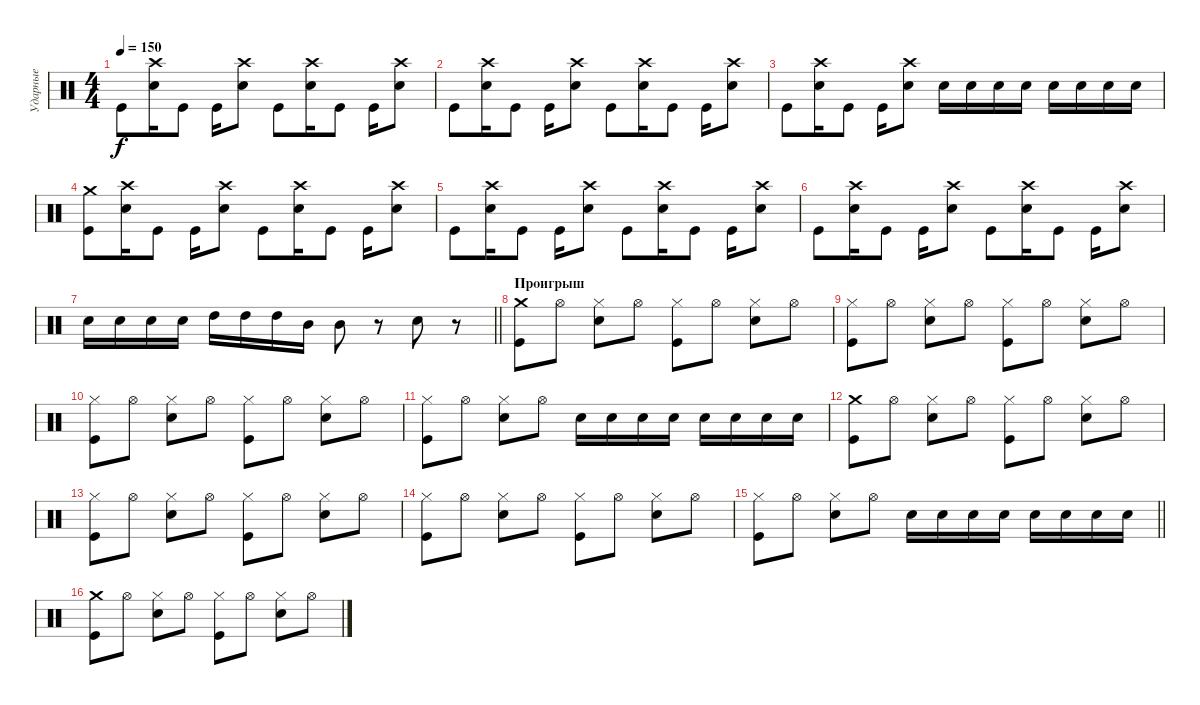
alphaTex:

\track ("Ударные" "Ударные") {instrument percussion}
\staff {score}
\articulation defaults
\ts (4 4)
\tempo 150
\clef neutral
\ks c "Kick (hit)".8{dy f}
("Crash high (hit)" "Electric Snare (hit)").16 "Kick (hit)".8 "Kick (hit)".16 ("Crash high (hit)" "Electric Snare (hit)").8 "Kick (hit)".8 ("Crash high (hit)" "Electric Snare (hit)").16 "Kick (hit)".8 "Kick (hit)".16 ("Crash high (hit)" "Electric Snare (hit)").8 |
"Kick (hit)".8 ("Crash high (hit)" "Electric Snare (hit)").16 "Kick (hit)".8 "Kick (hit)".16 ("Crash high (hit)" "Electric Snare (hit)").8 "Kick (hit)".8 ("Crash high (hit)" "Electric Snare (hit)").16 "Kick (hit)".8 "Kick (hit)".16 ("Crash high (hit)" "Electric Snare (hit)").8 |
"Kick (hit)".8 ("Crash high (hit)" "Electric Snare (hit)").16 "Kick (hit)".8 "Kick (hit)".16 ("Crash high (hit)" "Electric Snare (hit)").8 "Electric Snare (hit)".16 "Electric Snare (hit)".16 "Electric Snare (hit)".16 "Electric Snare (hit)".16 "Electric Snare (hit)".16 "Electric Snare (hit)".16 "Electric Snare (hit)".16 "Electric Snare (hit)".16 |
("Crash medium (hit)" "Kick (hit)").8 ("Crash high (hit)" "Electric Snare (hit)").16 "Kick (hit)".8 "Kick (hit)".16 ("Crash high (hit)" "Electric Snare (hit)").8 "Kick (hit)".8 ("Crash high (hit)" "Electric Snare (hit)").16 "Kick (hit)".8 "Kick (hit)".16 ("Crash high (hit)" "Electric Snare (hit)").8 |
"Kick (hit)".8 ("Crash high (hit)" "Electric Snare (hit)").16 "Kick (hit)".8 "Kick (hit)".16 ("Crash high (hit)" "Electric Snare (hit)").8 "Kick (hit)".8 ("Crash high (hit)" "Electric Snare (hit)").16 "Kick (hit)".8 "Kick (hit)".16 ("Crash high (hit)" "Electric Snare (hit)").8 |
"Kick (hit)".8 ("Crash high (hit)" "Electric Snare (hit)").16 "Kick (hit)".8 "Kick (hit)".16 ("Crash high (hit)" "Electric Snare (hit)").8 "Kick (hit)".8 ("Crash high (hit)" "Electric Snare (hit)").16 "Kick (hit)".8 "Kick (hit)".16 ("Crash high (hit)" "Electric Snare (hit)").8 |
\barLineRight lightlight "Electric Snare (hit)".16 "Electric Snare (hit)".16 "Electric Snare (hit)".16 "Electric Snare (hit)".16 "High Tom (hit)".16 "High Tom (hit)".16 "High Tom (hit)".16 "Mid Tom (hit)".16 "Mid Tom (hit)".8
r.8 "Electric Snare (hit)".8 r.8 |
\section ("" "Проигрыш")
("Crash medium (hit)" "Kick (hit)").8 "Hi-Hat (open)".8 ("Hi-Hat (closed)" "Electric Snare (hit)").8 "Hi-Hat (open)".8 ("Hi-Hat (closed)" "Kick (hit)").8 "Hi-Hat (open)".8 ("Hi-Hat (closed)" "Electric Snare (hit)").8 "Hi-Hat (open)".8 |
("Hi-Hat (closed)" "Kick (hit)").8 "Hi-Hat (open)".8 ("Hi-Hat (closed)" "Electric Snare (hit)").8 "Hi-Hat (open)".8 ("Hi-Hat (closed)" "Kick (hit)").8 "Hi-Hat (open)".8 ("Hi-Hat (closed)" "Electric Snare (hit)").8 "Hi-Hat (open)".8 |
("Hi-Hat (closed)" "Kick (hit)").8 "Hi-Hat (open)".8 ("Hi-Hat (closed)" "Electric Snare (hit)").8 "Hi-Hat (open)".8 ("Hi-Hat (closed)" "Kick (hit)").8 "Hi-Hat (open)".8 ("Hi-Hat (closed)" "Electric Snare (hit)").8 "Hi-Hat (open)".8 |
("Hi-Hat (closed)" "Kick (hit)").8 "Hi-Hat (open)".8 ("Hi-Hat (closed)" "Electric Snare (hit)").8 "Hi-Hat (open)".8 "Electric Snare (hit)".16 "Electric Snare (hit)".16 "Electric Snare (hit)".16 "Electric Snare (hit)".16 "Electric Snare (hit)".16 "Electric Snare (hit)".16 "Electric Snare (hit)".16 "Electric Snare (hit)".16 |
("Crash medium (hit)" "Kick (hit)").8 "Hi-Hat (open)".8 ("Hi-Hat (closed)" "Electric Snare (hit)").8 "Hi-Hat (open)".8 ("Hi-Hat (closed)" "Kick (hit)").8 "Hi-Hat (open)".8 ("Hi-Hat (closed)" "Electric Snare (hit)").8 "Hi-Hat (open)".8 |
("Hi-Hat (closed)" "Kick (hit)").8 "Hi-Hat (open)".8 ("Hi-Hat (closed)" "Electric Snare (hit)").8 "Hi-Hat (open)".8 ("Hi-Hat (closed)" "Kick (hit)").8 "Hi-Hat (open)".8 ("Hi-Hat (closed)" "Electric Snare (hit)").8 "Hi-Hat (open)".8 |
("Hi-Hat (closed)" "Kick (hit)").8 "Hi-Hat (open)".8 ("Hi-Hat (closed)" "Electric Snare (hit)").8 "Hi-Hat (open)".8 ("Hi-Hat (closed)" "Kick (hit)").8 "Hi-Hat (open)".8 ("Hi-Hat (closed)" "Electric Snare (hit)").8 "Hi-Hat (open)".8 |
\barLineRight lightlight
("Hi-Hat (closed)" "Kick (hit)").8 "Hi-Hat (open)".8 ("Hi-Hat (closed)" "Electric Snare (hit)").8 "Hi-Hat (open)".8 "Electric Snare (hit)".16 "Electric Snare (hit)".16 "Electric Snare (hit)".16 "Electric Snare (hit)".16 "Electric Snare (hit)".16 "Electric Snare (hit)".16 "Electric Snare (hit)".16 "Electric Snare (hit)".16 |
\section ("" " ")
("Crash medium (hit)" "Kick (hit)").8 "Hi-Hat (open)".8 ("Hi-Hat (closed)" "Electric Snare (hit)").8 "Hi-Hat (open)".8 ("Hi-Hat (closed)" "Kick (hit)").8 "Hi-Hat (open)".8 ("Hi-Hat (closed)" "Electric Snare (hit)").8 "Hi-Hat (open)".8
